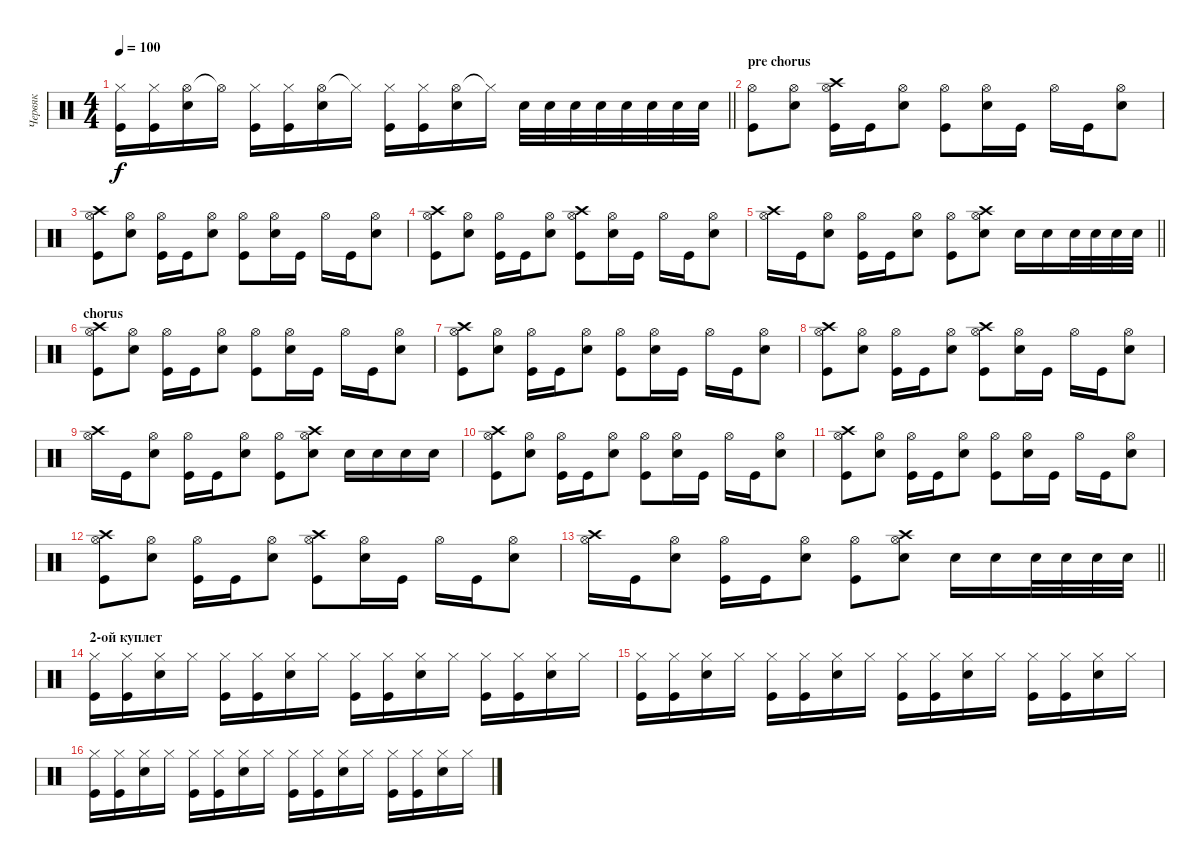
\track ("Червяк" "Червяк") {instrument percussion}
\staff {score}
\articulation defaults
\ts (4 4)
\tempo 100
\clef neutral
\barLineRight lightlight
\ks c
("Hi-Hat (closed)" "Kick (hit)").16{dy f} ("Hi-Hat (closed)" "Kick (hit)").16 ("Hi-Hat (open)" "Electric Snare (hit)").16 "Hi-Hat (open)"{t}.16 ("Hi-Hat (closed)" "Kick (hit)").16 ("Hi-Hat (closed)" "Kick (hit)").16 ("Hi-Hat (open)" "Electric Snare (hit)").16 "Hi-Hat (closed)"{t}.16 ("Hi-Hat (closed)" "Kick (hit)").16 ("Hi-Hat (closed)" "Kick (hit)").16 ("Hi-Hat (open)" "Electric Snare (hit)").16 "Hi-Hat (closed)"{t}.16 "Electric Snare (hit)".32 "Electric Snare (hit)".32 "Electric Snare (hit)".32 "Electric Snare (hit)".32 "Electric Snare (hit)".32 "Electric Snare (hit)".32 "Electric Snare (hit)".32 "Electric Snare (hit)".32 |
\section ("" "pre chorus")
("Hi-Hat (open)" "Kick (hit)").8 ("Hi-Hat (open)" "Electric Snare (hit)").8 ("Hi-Hat (open)" "Crash high (hit)" "Kick (hit)").16 "Kick (hit)".16 ("Hi-Hat (open)" "Electric Snare (hit)").8 ("Hi-Hat (open)" "Kick (hit)").8 ("Hi-Hat (open)" "Electric Snare (hit)").16 "Kick (hit)".16 "Hi-Hat (open)".16 "Kick (hit)".16 ("Hi-Hat (open)" "Electric Snare (hit)").8 |
("Hi-Hat (open)" "Crash high (hit)" "Kick (hit)").8 ("Hi-Hat (open)" "Electric Snare (hit)").8 ("Hi-Hat (open)" "Kick (hit)").16 "Kick (hit)".16 ("Hi-Hat (open)" "Electric Snare (hit)").8 ("Hi-Hat (open)" "Kick (hit)").8 ("Hi-Hat (open)" "Electric Snare (hit)").16 "Kick (hit)".16 "Hi-Hat (open)".16 "Kick (hit)".16 ("Hi-Hat (open)" "Electric Snare (hit)").8 |
("Hi-Hat (open)" "Crash high (hit)" "Kick (hit)").8 ("Hi-Hat (open)" "Electric Snare (hit)").8 ("Hi-Hat (open)" "Kick (hit)").16 "Kick (hit)".16 ("Hi-Hat (open)" "Electric Snare (hit)").8 ("Hi-Hat (open)" "Crash high (hit)" "Kick (hit)").8 ("Hi-Hat (open)" "Electric Snare (hit)").16 "Kick (hit)".16 "Hi-Hat (open)".16 "Kick (hit)".16 ("Hi-Hat (open)" "Electric Snare (hit)").8 |
\barLineRight lightlight
("Hi-Hat (open)" "Crash high (hit)").16 "Kick (hit)".16 ("Hi-Hat (open)" "Electric Snare (hit)").8 ("Hi-Hat (open)" "Kick (hit)").16 "Kick (hit)".16 ("Hi-Hat (open)" "Electric Snare (hit)").8 ("Hi-Hat (open)" "Kick (hit)").8 ("Hi-Hat (open)" "Crash high (hit)" "Electric Snare (hit)").8 "Electric Snare (hit)".16 "Electric Snare (hit)".16 "Electric Snare (hit)".32 "Electric Snare (hit)".32 "Electric Snare (hit)".32 "Electric Snare (hit)".32 |
\section ("" "chorus")
("Hi-Hat (open)" "Crash high (hit)" "Kick (hit)").8 ("Hi-Hat (open)" "Electric Snare (hit)").8 ("Hi-Hat (open)" "Kick (hit)").16 "Kick (hit)".16 ("Hi-Hat (open)" "Electric Snare (hit)").8 ("Hi-Hat (open)" "Kick (hit)").8 ("Hi-Hat (open)" "Electric Snare (hit)").16 "Kick (hit)".16 "Hi-Hat (open)".16 "Kick (hit)".16 ("Hi-Hat (open)" "Electric Snare (hit)").8 |
("Hi-Hat (open)" "Crash high (hit)" "Kick (hit)").8 ("Hi-Hat (open)" "Electric Snare (hit)").8 ("Hi-Hat (open)" "Kick (hit)").16 "Kick (hit)".16 ("Hi-Hat (open)" "Electric Snare (hit)").8 ("Hi-Hat (open)" "Kick (hit)").8 ("Hi-Hat (open)" "Electric Snare (hit)").16 "Kick (hit)".16 "Hi-Hat (open)".16 "Kick (hit)".16 ("Hi-Hat (open)" "Electric Snare (hit)").8 |
("Hi-Hat (open)" "Crash high (hit)" "Kick (hit)").8 ("Hi-Hat (open)" "Electric Snare (hit)").8 ("Hi-Hat (open)" "Kick (hit)").16 "Kick (hit)".16 ("Hi-Hat (open)" "Electric Snare (hit)").8 ("Hi-Hat (open)" "Crash high (hit)" "Kick (hit)").8 ("Hi-Hat (open)" "Electric Snare (hit)").16 "Kick (hit)".16 "Hi-Hat (open)".16 "Kick (hit)".16 ("Hi-Hat (open)" "Electric Snare (hit)").8 |
("Hi-Hat (open)" "Crash high (hit)").16 "Kick (hit)".16 ("Hi-Hat (open)" "Electric Snare (hit)").8 ("Hi-Hat (open)" "Kick (hit)").16 "Kick (hit)".16 ("Hi-Hat (open)" "Electric Snare (hit)").8 ("Hi-Hat (open)" "Kick (hit)").8 ("Hi-Hat (open)" "Crash high (hit)" "Electric Snare (hit)").8 "Snare (hit) 2".16 "Electric Snare (hit)".16 "Electric Snare (hit)".16 "Electric Snare (hit)".16 |
("Hi-Hat (open)" "Crash high (hit)" "Kick (hit)").8 ("Hi-Hat (open)" "Electric Snare (hit)").8 ("Hi-Hat (open)" "Kick (hit)").16 "Kick (hit)".16 ("Hi-Hat (open)" "Electric Snare (hit)").8 ("Hi-Hat (open)" "Kick (hit)").8 ("Hi-Hat (open)" "Electric Snare (hit)").16 "Kick (hit)".16 "Hi-Hat (open)".16 "Kick (hit)".16 ("Hi-Hat (open)" "Electric Snare (hit)").8 |
("Hi-Hat (open)" "Crash high (hit)" "Kick (hit)").8 ("Hi-Hat (open)" "Electric Snare (hit)").8 ("Hi-Hat (open)" "Kick (hit)").16 "Kick (hit)".16 ("Hi-Hat (open)" "Electric Snare (hit)").8 ("Hi-Hat (open)" "Kick (hit)").8 ("Hi-Hat (open)" "Electric Snare (hit)").16 "Kick (hit)".16 "Hi-Hat (open)".16 "Kick (hit)".16 ("Hi-Hat (open)" "Electric Snare (hit)").8 |
("Hi-Hat (open)" "Crash high (hit)" "Kick (hit)").8 ("Hi-Hat (open)" "Electric Snare (hit)").8 ("Hi-Hat (open)" "Kick (hit)").16 "Kick (hit)".16 ("Hi-Hat (open)" "Electric Snare (hit)").8 ("Hi-Hat (open)" "Crash high (hit)" "Kick (hit)").8 ("Hi-Hat (open)" "Electric Snare (hit)").16 "Kick (hit)".16 "Hi-Hat (open)".16 "Kick (hit)".16 ("Hi-Hat (open)" "Electric Snare (hit)").8 |
\barLineRight lightlight
("Hi-Hat (open)" "Crash high (hit)").16 "Kick (hit)".16 ("Hi-Hat (open)" "Electric Snare (hit)").8 ("Hi-Hat (open)" "Kick (hit)").16 "Kick (hit)".16 ("Hi-Hat (open)" "Electric Snare (hit)").8 ("Hi-Hat (open)" "Kick (hit)").8 ("Hi-Hat (open)" "Crash high (hit)" "Electric Snare (hit)").8 "Electric Snare (hit)".16 "Electric Snare (hit)".16 "Electric Snare (hit)".32 "Electric Snare (hit)".32 "Electric Snare (hit)".32 "Electric Snare (hit)".32 |
\section ("" "2-ой куплет")
("Hi-Hat (closed)" "Kick (hit)").16 ("Hi-Hat (closed)" "Kick (hit)").16 ("Hi-Hat (closed)" "Electric Snare (hit)").16 "Hi-Hat (closed)".16 ("Hi-Hat (closed)" "Kick (hit)").16 ("Hi-Hat (closed)" "Kick (hit)").16 ("Hi-Hat (closed)" "Electric Snare (hit)").16 "Hi-Hat (closed)".16 ("Hi-Hat (closed)" "Kick (hit)").16 ("Hi-Hat (closed)" "Kick (hit)").16 ("Hi-Hat (closed)" "Electric Snare (hit)").16 "Hi-Hat (closed)".16 ("Hi-Hat (closed)" "Kick (hit)").16 ("Hi-Hat (closed)" "Kick (hit)").16 ("Hi-Hat (closed)" "Electric Snare (hit)").16 "Hi-Hat (closed)".16 |
("Hi-Hat (closed)" "Kick (hit)").16 ("Hi-Hat (closed)" "Kick (hit)").16 ("Hi-Hat (closed)" "Electric Snare (hit)").16 "Hi-Hat (closed)".16 ("Hi-Hat (closed)" "Kick (hit)").16 ("Hi-Hat (closed)" "Kick (hit)").16 ("Hi-Hat (closed)" "Electric Snare (hit)").16 "Hi-Hat (closed)".16 ("Hi-Hat (closed)" "Kick (hit)").16 ("Hi-Hat (closed)" "Kick (hit)").16 ("Hi-Hat (closed)" "Electric Snare (hit)").16 "Hi-Hat (closed)".16 ("Hi-Hat (closed)" "Kick (hit)").16 ("Hi-Hat (closed)" "Kick (hit)").16 ("Hi-Hat (closed)" "Electric Snare (hit)").16 "Hi-Hat (closed)".16 |
("Hi-Hat (closed)" "Kick (hit)").16 ("Hi-Hat (closed)" "Kick (hit)").16 ("Hi-Hat (closed)" "Electric Snare (hit)").16 "Hi-Hat (closed)".16 ("Hi-Hat (closed)" "Kick (hit)").16 ("Hi-Hat (closed)" "Kick (hit)").16 ("Hi-Hat (closed)" "Electric Snare (hit)").16 "Hi-Hat (closed)".16 ("Hi-Hat (closed)" "Kick (hit)").16 ("Hi-Hat (closed)" "Kick (hit)").16 ("Hi-Hat (closed)" "Electric Snare (hit)").16 "Hi-Hat (closed)".16 ("Hi-Hat (closed)" "Kick (hit)").16 ("Hi-Hat (closed)" "Kick (hit)").16 ("Hi-Hat (closed)" "Electric Snare (hit)").16 "Hi-Hat (closed)".16
